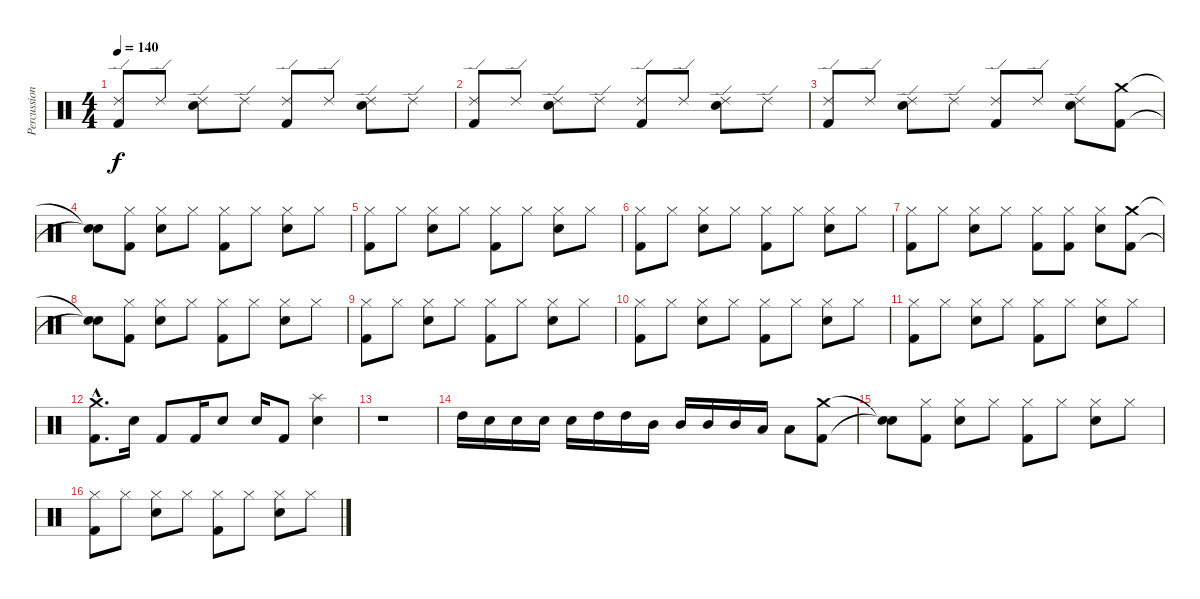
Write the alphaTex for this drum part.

\track ("Percussion" "Percussion") {instrument percussion}
\staff {score}
\articulation defaults
\ts (4 4)
\tempo 140
\clef neutral
\ks c
("Ride (edge) 2" "Kick (hit) 2").8{dy f} "Ride (edge) 2".8 ("Ride (edge) 2" "Electric Snare (hit)").8 "Ride (edge) 2".8 ("Ride (edge) 2" "Kick (hit) 2").8 "Ride (edge) 2".8 ("Ride (edge) 2" "Electric Snare (hit)").8 "Ride (edge) 2".8 |
("Ride (edge) 2" "Kick (hit) 2").8 "Ride (edge) 2".8 ("Ride (edge) 2" "Electric Snare (hit)").8 "Ride (edge) 2".8 ("Ride (edge) 2" "Kick (hit) 2").8 "Ride (edge) 2".8 ("Ride (edge) 2" "Electric Snare (hit)").8 "Ride (edge) 2".8 |
("Ride (edge) 2" "Kick (hit) 2").8 "Ride (edge) 2".8 ("Ride (edge) 2" "Electric Snare (hit)").8 "Ride (edge) 2".8 ("Ride (edge) 2" "Kick (hit) 2").8 "Ride (edge) 2".8 ("Ride (edge) 2" "Electric Snare (hit)").8 ("Crash medium (hit)" "Kick (hit) 2").8 |
("Snare (hit)"{t} "Snare (hit)"{t}).8 ("Hi-Hat (closed)" "Kick (hit) 2").8 ("Hi-Hat (closed)" "Electric Snare (hit)").8 "Hi-Hat (closed)".8 ("Hi-Hat (closed)" "Kick (hit) 2").8 "Hi-Hat (closed)".8 ("Hi-Hat (closed)" "Electric Snare (hit)").8 "Hi-Hat (closed)".8 |
("Hi-Hat (closed)" "Kick (hit) 2").8 "Hi-Hat (closed)".8 ("Hi-Hat (closed)" "Electric Snare (hit)").8 "Hi-Hat (closed)".8 ("Hi-Hat (closed)" "Kick (hit) 2").8 "Hi-Hat (closed)".8 ("Hi-Hat (closed)" "Electric Snare (hit)").8 "Hi-Hat (closed)".8 |
("Hi-Hat (closed)" "Kick (hit) 2").8 "Hi-Hat (closed)".8 ("Hi-Hat (closed)" "Electric Snare (hit)").8 "Hi-Hat (closed)".8 ("Hi-Hat (closed)" "Kick (hit) 2").8 "Hi-Hat (closed)".8 ("Hi-Hat (closed)" "Electric Snare (hit)").8 "Hi-Hat (closed)".8 |
("Hi-Hat (closed)" "Kick (hit) 2").8 "Hi-Hat (closed)".8 ("Hi-Hat (closed)" "Electric Snare (hit)").8 "Hi-Hat (closed)".8 ("Hi-Hat (closed)" "Kick (hit) 2").8 ("Hi-Hat (closed)" "Kick (hit) 2").8 ("Hi-Hat (closed)" "Electric Snare (hit)").8 ("Crash medium (hit)" "Kick (hit) 2").8 |
("Snare (hit)"{t} "Snare (hit)"{t}).8 ("Hi-Hat (closed)" "Kick (hit) 2").8 ("Hi-Hat (closed)" "Electric Snare (hit)").8 "Hi-Hat (closed)".8 ("Hi-Hat (closed)" "Kick (hit) 2").8 "Hi-Hat (closed)".8 ("Hi-Hat (closed)" "Electric Snare (hit)").8 "Hi-Hat (closed)".8 |
("Hi-Hat (closed)" "Kick (hit) 2").8 "Hi-Hat (closed)".8 ("Hi-Hat (closed)" "Electric Snare (hit)").8 "Hi-Hat (closed)".8 ("Hi-Hat (closed)" "Kick (hit) 2").8 "Hi-Hat (closed)".8 ("Hi-Hat (closed)" "Electric Snare (hit)").8 "Hi-Hat (closed)".8 |
("Hi-Hat (closed)" "Kick (hit) 2").8 "Hi-Hat (closed)".8 ("Hi-Hat (closed)" "Electric Snare (hit)").8 "Hi-Hat (closed)".8 ("Hi-Hat (closed)" "Kick (hit) 2").8 "Hi-Hat (closed)".8 ("Hi-Hat (closed)" "Electric Snare (hit)").8 "Hi-Hat (closed)".8 |
("Hi-Hat (closed)" "Kick (hit) 2").8 "Hi-Hat (closed)".8 ("Hi-Hat (closed)" "Electric Snare (hit)").8 "Hi-Hat (closed)".8 ("Hi-Hat (closed)" "Kick (hit) 2").8 "Hi-Hat (closed)".8 ("Hi-Hat (closed)" "Electric Snare (hit)").8 "Hi-Hat (closed)".8 |
("Crash medium (hit)"{hac} "Kick (hit) 2"{hac}).8{d} "Electric Snare (hit)".16 "Kick (hit) 2".8 "Kick (hit) 2".16 "Electric Snare (hit)".8 "Electric Snare (hit)".16 "Kick (hit) 2".8 ("Splash (hit)" "Electric Snare (hit)").4 |
r.1 |
"High Tom (hit)".16 "Electric Snare (hit)".16 "Electric Snare (hit)".16 "Electric Snare (hit)".16 "Electric Snare (hit)".16 "High Tom (hit)".16 "High Tom (hit)".16 "Mid Tom (hit)".16 "Mid Tom (hit)".16 "Mid Tom (hit)".16 "Mid Tom (hit)".16 "Low Tom (hit)".16 "Low Tom (hit)".8 ("Crash medium (hit)" "Kick (hit) 2").8 |
("Snare (hit)"{t} "Snare (hit)"{t}).8 ("Hi-Hat (closed)" "Kick (hit) 2").8 ("Hi-Hat (closed)" "Electric Snare (hit)").8 "Hi-Hat (closed)".8 ("Hi-Hat (closed)" "Kick (hit) 2").8 "Hi-Hat (closed)".8 ("Hi-Hat (closed)" "Electric Snare (hit)").8 "Hi-Hat (closed)".8 |
("Hi-Hat (closed)" "Kick (hit) 2").8 "Hi-Hat (closed)".8 ("Hi-Hat (closed)" "Electric Snare (hit)").8 "Hi-Hat (closed)".8 ("Hi-Hat (closed)" "Kick (hit) 2").8 "Hi-Hat (closed)".8 ("Hi-Hat (closed)" "Electric Snare (hit)").8 "Hi-Hat (closed)".8
